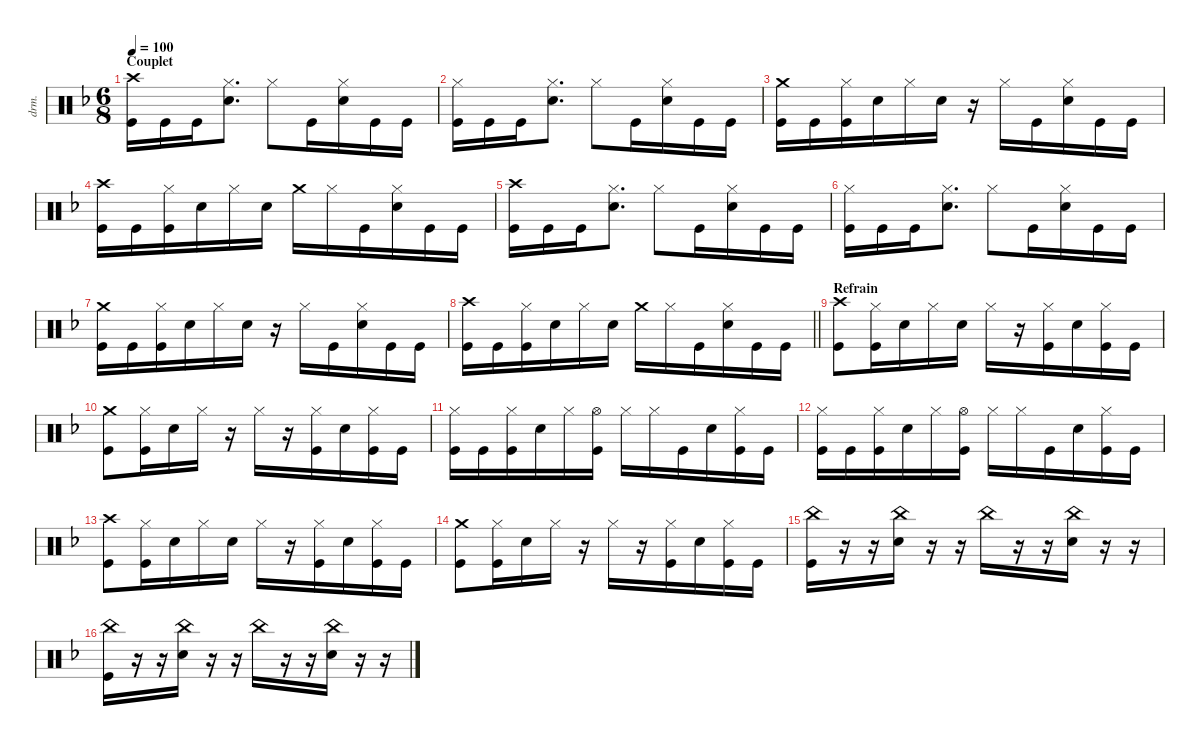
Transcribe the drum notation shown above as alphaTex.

\defaultSystemsLayout 4
\hideDynamics
\bracketExtendMode nobrackets
\otherSystemsTrackNameOrientation horizontal
\track ("Percussions" "drm.") {instrument percussion}
\staff {score}
\articulation defaults
\ts (6 8)
\section ("" "Couplet")
\tempo 100
\clef neutral
\ks dminor
("Crash high (hit)"{acc forcenatural} "Kick (hit)"{acc forcenatural}).16{dy f} "Kick (hit)"{acc forcenatural}.16 "Kick (hit)"{acc forcenatural}.16 ("Hi-Hat (closed)"{acc forcenatural} "Snare (hit) 2"{acc forcenatural}).8{d} "Hi-Hat (closed)"{acc forcenatural}.8 "Kick (hit)"{acc forcenatural}.16 ("Hi-Hat (closed)"{acc forcenatural} "Snare (hit) 2"{acc forcenatural}).16 "Kick (hit)"{acc forcenatural}.16 "Kick (hit)"{acc forcenatural}.16 |
("Hi-Hat (closed)"{acc forcenatural} "Kick (hit)"{acc forcenatural}).16 "Kick (hit)"{acc forcenatural}.16 "Kick (hit)"{acc forcenatural}.16 ("Hi-Hat (closed)"{acc forcenatural} "Snare (hit) 2"{acc forcenatural}).8{d} "Hi-Hat (closed)"{acc forcenatural}.8 "Kick (hit)"{acc forcenatural}.16 ("Hi-Hat (closed)"{acc forcenatural} "Snare (hit) 2"{acc forcenatural}).16 "Kick (hit)"{acc forcenatural}.16 "Kick (hit)"{acc forcenatural}.16 |
("Crash medium (hit)"{acc forcenatural} "Kick (hit)"{acc forcenatural}).16 "Kick (hit)"{acc forcenatural}.16 ("Hi-Hat (closed)"{acc forcenatural} "Kick (hit)"{acc forcenatural}).16 "Snare (hit) 2"{acc forcenatural}.16 "Hi-Hat (closed)"{acc forcenatural}.16 "Snare (hit) 2"{acc forcenatural}.16 r.16 "Hi-Hat (closed)"{acc forcenatural}.16 "Kick (hit)"{acc forcenatural}.16 ("Hi-Hat (closed)"{acc forcenatural} "Snare (hit) 2"{acc forcenatural}).16 "Kick (hit)"{acc forcenatural}.16 "Kick (hit)"{acc forcenatural}.16 |
("Crash high (hit)"{acc forcenatural} "Kick (hit)"{acc forcenatural}).16 "Kick (hit)"{acc forcenatural}.16 ("Hi-Hat (closed)"{acc forcenatural} "Kick (hit)"{acc forcenatural}).16 "Snare (hit) 2"{acc forcenatural}.16 "Hi-Hat (closed)"{acc forcenatural}.16 "Snare (hit) 2"{acc forcenatural}.16 "Crash medium (hit)"{acc forcenatural}.16 "Hi-Hat (closed)"{acc forcenatural}.16 "Kick (hit)"{acc forcenatural}.16 ("Hi-Hat (closed)"{acc forcenatural} "Snare (hit) 2"{acc forcenatural}).16 "Kick (hit)"{acc forcenatural}.16 "Kick (hit)"{acc forcenatural}.16 |
("Crash high (hit)"{acc forcenatural} "Kick (hit)"{acc forcenatural}).16 "Kick (hit)"{acc forcenatural}.16 "Kick (hit)"{acc forcenatural}.16 ("Hi-Hat (closed)"{acc forcenatural} "Snare (hit) 2"{acc forcenatural}).8{d} "Hi-Hat (closed)"{acc forcenatural}.8 "Kick (hit)"{acc forcenatural}.16 ("Hi-Hat (closed)"{acc forcenatural} "Snare (hit) 2"{acc forcenatural}).16 "Kick (hit)"{acc forcenatural}.16 "Kick (hit)"{acc forcenatural}.16 |
("Hi-Hat (closed)"{acc forcenatural} "Kick (hit)"{acc forcenatural}).16 "Kick (hit)"{acc forcenatural}.16 "Kick (hit)"{acc forcenatural}.16 ("Hi-Hat (closed)"{acc forcenatural} "Snare (hit) 2"{acc forcenatural}).8{d} "Hi-Hat (closed)"{acc forcenatural}.8 "Kick (hit)"{acc forcenatural}.16 ("Hi-Hat (closed)"{acc forcenatural} "Snare (hit) 2"{acc forcenatural}).16 "Kick (hit)"{acc forcenatural}.16 "Kick (hit)"{acc forcenatural}.16 |
("Crash medium (hit)"{acc forcenatural} "Kick (hit)"{acc forcenatural}).16 "Kick (hit)"{acc forcenatural}.16 ("Hi-Hat (closed)"{acc forcenatural} "Kick (hit)"{acc forcenatural}).16 "Snare (hit) 2"{acc forcenatural}.16 "Hi-Hat (closed)"{acc forcenatural}.16 "Snare (hit) 2"{acc forcenatural}.16 r.16 "Hi-Hat (closed)"{acc forcenatural}.16 "Kick (hit)"{acc forcenatural}.16 ("Hi-Hat (closed)"{acc forcenatural} "Snare (hit) 2"{acc forcenatural}).16 "Kick (hit)"{acc forcenatural}.16 "Kick (hit)"{acc forcenatural}.16 |
\barLineRight lightlight
("Crash high (hit)"{acc forcenatural} "Kick (hit)"{acc forcenatural}).16 "Kick (hit)"{acc forcenatural}.16 ("Hi-Hat (closed)"{acc forcenatural} "Kick (hit)"{acc forcenatural}).16 "Snare (hit) 2"{acc forcenatural}.16 "Hi-Hat (closed)"{acc forcenatural}.16 "Snare (hit) 2"{acc forcenatural}.16 "Crash medium (hit)"{acc forcenatural}.16 "Hi-Hat (closed)"{acc forcenatural}.16 "Kick (hit)"{acc forcenatural}.16 ("Hi-Hat (closed)"{acc forcenatural} "Snare (hit) 2"{acc forcenatural}).16 "Kick (hit)"{acc forcenatural}.16 "Kick (hit)"{acc forcenatural}.16 |
\section ("" "Refrain")
("Crash high (hit)"{acc forcenatural} "Kick (hit)"{acc forcenatural}).8 ("Hi-Hat (closed)"{acc forcenatural} "Kick (hit)"{acc forcenatural}).16 "Snare (hit) 2"{acc forcenatural}.16 "Hi-Hat (closed)"{acc forcenatural}.16 "Snare (hit) 2"{acc forcenatural}.16 "Hi-Hat (closed)"{acc forcenatural}.16 r.16 ("Hi-Hat (closed)"{acc forcenatural} "Kick (hit)"{acc forcenatural}).16 "Snare (hit) 2"{acc forcenatural}.16 ("Hi-Hat (closed)"{acc forcenatural} "Kick (hit)"{acc forcenatural}).16 "Kick (hit)"{acc forcenatural}.16 |
("Crash medium (hit)"{acc forcenatural} "Kick (hit)"{acc forcenatural}).8 ("Hi-Hat (closed)"{acc forcenatural} "Kick (hit)"{acc forcenatural}).16 "Snare (hit) 2"{acc forcenatural}.16 "Hi-Hat (closed)"{acc forcenatural}.16 r.16 "Hi-Hat (closed)"{acc forcenatural}.16 r.16 ("Hi-Hat (closed)"{acc forcenatural} "Kick (hit)"{acc forcenatural}).16 "Snare (hit) 2"{acc forcenatural}.16 ("Hi-Hat (closed)"{acc forcenatural} "Kick (hit)"{acc forcenatural}).16 "Kick (hit)"{acc forcenatural}.16 |
("Hi-Hat (closed)"{acc forcenatural} "Kick (hit)"{acc forcenatural}).16 "Kick (hit)"{acc forcenatural}.16 ("Hi-Hat (closed)"{acc forcenatural} "Kick (hit)"{acc forcenatural}).16 "Snare (hit) 2"{acc forcenatural}.16 "Hi-Hat (closed)"{acc forcenatural}.16 ("Hi-Hat (open)"{acc forcenatural} "Kick (hit)"{acc forcenatural}).16 "Hi-Hat (closed)"{acc forcenatural}.16 "Hi-Hat (closed)"{acc forcenatural}.16 "Kick (hit)"{acc forcenatural}.16 "Snare (hit) 2"{acc forcenatural}.16 ("Hi-Hat (closed)"{acc forcenatural} "Kick (hit)"{acc forcenatural}).16 "Kick (hit)"{acc forcenatural}.16 |
("Hi-Hat (closed)"{acc forcenatural} "Kick (hit)"{acc forcenatural}).16 "Kick (hit)"{acc forcenatural}.16 ("Hi-Hat (closed)"{acc forcenatural} "Kick (hit)"{acc forcenatural}).16 "Snare (hit) 2"{acc forcenatural}.16 "Hi-Hat (closed)"{acc forcenatural}.16 ("Hi-Hat (open)"{acc forcenatural} "Kick (hit)"{acc forcenatural}).16 "Hi-Hat (closed)"{acc forcenatural}.16 "Hi-Hat (closed)"{acc forcenatural}.16 "Kick (hit)"{acc forcenatural}.16 "Snare (hit) 2"{acc forcenatural}.16 ("Hi-Hat (closed)"{acc forcenatural} "Kick (hit)"{acc forcenatural}).16 "Kick (hit)"{acc forcenatural}.16 |
("Crash high (hit)"{acc forcenatural} "Kick (hit)"{acc forcenatural}).8 ("Hi-Hat (closed)"{acc forcenatural} "Kick (hit)"{acc forcenatural}).16 "Snare (hit) 2"{acc forcenatural}.16 "Hi-Hat (closed)"{acc forcenatural}.16 "Snare (hit) 2"{acc forcenatural}.16 "Hi-Hat (closed)"{acc forcenatural}.16 r.16 ("Hi-Hat (closed)"{acc forcenatural} "Kick (hit)"{acc forcenatural}).16 "Snare (hit) 2"{acc forcenatural}.16 ("Hi-Hat (closed)"{acc forcenatural} "Kick (hit)"{acc forcenatural}).16 "Kick (hit)"{acc forcenatural}.16 |
("Crash medium (hit)"{acc forcenatural} "Kick (hit)"{acc forcenatural}).8 ("Hi-Hat (closed)"{acc forcenatural} "Kick (hit)"{acc forcenatural}).16 "Snare (hit) 2"{acc forcenatural}.16 "Hi-Hat (closed)"{acc forcenatural}.16 r.16 "Hi-Hat (closed)"{acc forcenatural}.16 r.16 ("Hi-Hat (closed)"{acc forcenatural} "Kick (hit)"{acc forcenatural}).16 "Snare (hit) 2"{acc forcenatural}.16 ("Hi-Hat (closed)"{acc forcenatural} "Kick (hit)"{acc forcenatural}).16 "Kick (hit)"{acc forcenatural}.16 |
("China (hit)"{acc forcenatural} "Kick (hit)"{acc forcenatural}).16 r.16 r.16 ("China (hit)"{acc forcenatural} "Snare (hit) 2"{acc forcenatural}).16 r.16 r.16 "China (hit)"{acc forcenatural}.16 r.16 r.16 ("China (hit)"{acc forcenatural} "Snare (hit) 2"{acc forcenatural}).16 r.16 r.16 |
("China (hit)"{acc forcenatural} "Kick (hit)"{acc forcenatural}).16 r.16 r.16 ("China (hit)"{acc forcenatural} "Snare (hit) 2"{acc forcenatural}).16 r.16 r.16 "China (hit)"{acc forcenatural}.16 r.16 r.16 ("China (hit)"{acc forcenatural} "Snare (hit) 2"{acc forcenatural}).16 r.16 r.16
